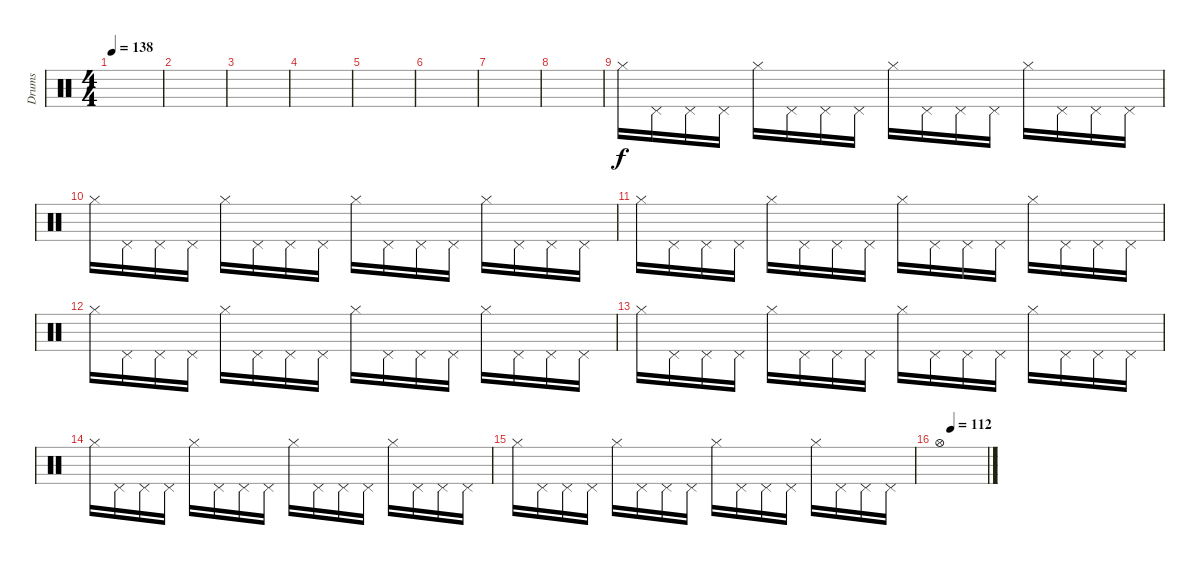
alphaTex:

\track ("Drums" "Drums") {instrument percussion}
\staff {score}
\articulation defaults
\ts (4 4)
\tempo 138
\clef neutral
\ks c
|
|
|
|
|
|
|
|
"Hi-Hat (closed)".16 "Pedal Hi-Hat (hit)".16 "Pedal Hi-Hat (hit)".16 "Pedal Hi-Hat (hit)".16 "Hi-Hat (closed)".16 "Pedal Hi-Hat (hit)".16 "Pedal Hi-Hat (hit)".16 "Pedal Hi-Hat (hit)".16 "Hi-Hat (closed)".16 "Pedal Hi-Hat (hit)".16 "Pedal Hi-Hat (hit)".16 "Pedal Hi-Hat (hit)".16 "Hi-Hat (closed)".16 "Pedal Hi-Hat (hit)".16 "Pedal Hi-Hat (hit)".16 "Pedal Hi-Hat (hit)".16 |
"Hi-Hat (closed)".16 "Pedal Hi-Hat (hit)".16 "Pedal Hi-Hat (hit)".16 "Pedal Hi-Hat (hit)".16 "Hi-Hat (closed)".16 "Pedal Hi-Hat (hit)".16 "Pedal Hi-Hat (hit)".16 "Pedal Hi-Hat (hit)".16 "Hi-Hat (closed)".16 "Pedal Hi-Hat (hit)".16 "Pedal Hi-Hat (hit)".16 "Pedal Hi-Hat (hit)".16 "Hi-Hat (closed)".16 "Pedal Hi-Hat (hit)".16 "Pedal Hi-Hat (hit)".16 "Pedal Hi-Hat (hit)".16 |
"Hi-Hat (closed)".16 "Pedal Hi-Hat (hit)".16 "Pedal Hi-Hat (hit)".16 "Pedal Hi-Hat (hit)".16 "Hi-Hat (closed)".16 "Pedal Hi-Hat (hit)".16 "Pedal Hi-Hat (hit)".16 "Pedal Hi-Hat (hit)".16 "Hi-Hat (closed)".16 "Pedal Hi-Hat (hit)".16 "Pedal Hi-Hat (hit)".16 "Pedal Hi-Hat (hit)".16 "Hi-Hat (closed)".16 "Pedal Hi-Hat (hit)".16 "Pedal Hi-Hat (hit)".16 "Pedal Hi-Hat (hit)".16 |
"Hi-Hat (closed)".16 "Pedal Hi-Hat (hit)".16 "Pedal Hi-Hat (hit)".16 "Pedal Hi-Hat (hit)".16 "Hi-Hat (closed)".16 "Pedal Hi-Hat (hit)".16 "Pedal Hi-Hat (hit)".16 "Pedal Hi-Hat (hit)".16 "Hi-Hat (closed)".16 "Pedal Hi-Hat (hit)".16 "Pedal Hi-Hat (hit)".16 "Pedal Hi-Hat (hit)".16 "Hi-Hat (closed)".16 "Pedal Hi-Hat (hit)".16 "Pedal Hi-Hat (hit)".16 "Pedal Hi-Hat (hit)".16 |
"Hi-Hat (closed)".16 "Pedal Hi-Hat (hit)".16 "Pedal Hi-Hat (hit)".16 "Pedal Hi-Hat (hit)".16 "Hi-Hat (closed)".16 "Pedal Hi-Hat (hit)".16 "Pedal Hi-Hat (hit)".16 "Pedal Hi-Hat (hit)".16 "Hi-Hat (closed)".16 "Pedal Hi-Hat (hit)".16 "Pedal Hi-Hat (hit)".16 "Pedal Hi-Hat (hit)".16 "Hi-Hat (closed)".16 "Pedal Hi-Hat (hit)".16 "Pedal Hi-Hat (hit)".16 "Pedal Hi-Hat (hit)".16 |
"Hi-Hat (closed)".16 "Pedal Hi-Hat (hit)".16 "Pedal Hi-Hat (hit)".16 "Pedal Hi-Hat (hit)".16 "Hi-Hat (closed)".16 "Pedal Hi-Hat (hit)".16 "Pedal Hi-Hat (hit)".16 "Pedal Hi-Hat (hit)".16 "Hi-Hat (closed)".16 "Pedal Hi-Hat (hit)".16 "Pedal Hi-Hat (hit)".16 "Pedal Hi-Hat (hit)".16 "Hi-Hat (closed)".16 "Pedal Hi-Hat (hit)".16 "Pedal Hi-Hat (hit)".16 "Pedal Hi-Hat (hit)".16 |
"Hi-Hat (closed)".16 "Pedal Hi-Hat (hit)".16 "Pedal Hi-Hat (hit)".16 "Pedal Hi-Hat (hit)".16 "Hi-Hat (closed)".16 "Pedal Hi-Hat (hit)".16 "Pedal Hi-Hat (hit)".16 "Pedal Hi-Hat (hit)".16 "Hi-Hat (closed)".16 "Pedal Hi-Hat (hit)".16 "Pedal Hi-Hat (hit)".16 "Pedal Hi-Hat (hit)".16 "Hi-Hat (closed)".16 "Pedal Hi-Hat (hit)".16 "Pedal Hi-Hat (hit)".16 "Pedal Hi-Hat (hit)".16 |
\tempo (112 0.25)
"Hi-Hat (open)".1
